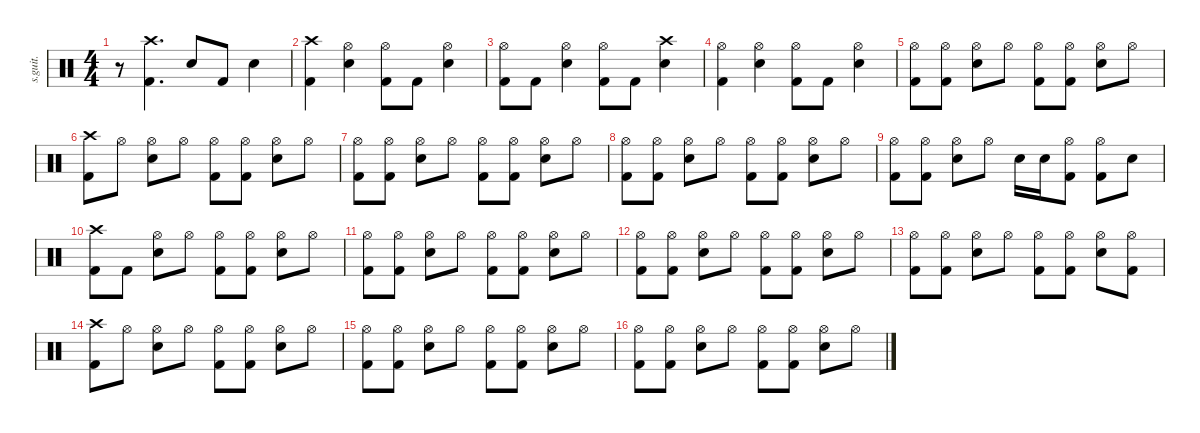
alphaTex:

\defaultSystemsLayout 4
\hideDynamics
\bracketExtendMode nobrackets
\track ("" "s.guit.") {instrument percussion}
\staff {score}
\articulation defaults
\ts (4 4)
\tempo (153 hide)
\clef neutral
\ks c
r.8{dy f} ("Crash high (hit)" "Kick (hit) 2").4{d} "Snare (hit) 2".8 "Kick (hit) 2".8 "Snare (hit) 2".4 |
("Crash high (hit)" "Kick (hit) 2").4 ("Hi-Hat (open)" "Snare (hit) 2").4 ("Hi-Hat (open)" "Kick (hit) 2").8 "Kick (hit) 2".8 ("Hi-Hat (open)" "Snare (hit) 2").4 |
("Hi-Hat (open)" "Kick (hit) 2").8 "Kick (hit) 2".8 ("Hi-Hat (open)" "Snare (hit) 2").4 ("Hi-Hat (open)" "Kick (hit) 2").8 "Kick (hit) 2".8 ("Crash high (hit)" "Snare (hit) 2").4 |
("Hi-Hat (open)" "Kick (hit) 2").4 ("Hi-Hat (open)" "Snare (hit) 2").4 ("Hi-Hat (open)" "Kick (hit) 2").8 "Kick (hit) 2".8 ("Hi-Hat (open)" "Snare (hit) 2").4 |
("Hi-Hat (open)" "Kick (hit) 2").8 ("Hi-Hat (open)" "Kick (hit) 2").8 ("Hi-Hat (open)" "Snare (hit) 2").8 "Hi-Hat (open)".8 ("Hi-Hat (open)" "Kick (hit) 2").8 ("Hi-Hat (open)" "Kick (hit) 2").8 ("Hi-Hat (open)" "Snare (hit) 2").8 "Hi-Hat (open)".8 |
("Crash high (hit)" "Kick (hit) 2").8 "Hi-Hat (open)".8 ("Hi-Hat (open)" "Snare (hit) 2").8 "Hi-Hat (open)".8 ("Hi-Hat (open)" "Kick (hit) 2").8 ("Hi-Hat (open)" "Kick (hit) 2").8 ("Hi-Hat (open)" "Snare (hit) 2").8 "Hi-Hat (open)".8 |
("Hi-Hat (open)" "Kick (hit) 2").8 ("Hi-Hat (open)" "Kick (hit) 2").8 ("Hi-Hat (open)" "Snare (hit) 2").8 "Hi-Hat (open)".8 ("Hi-Hat (open)" "Kick (hit) 2").8 ("Hi-Hat (open)" "Kick (hit) 2").8 ("Hi-Hat (open)" "Snare (hit) 2").8 "Hi-Hat (open)".8 |
("Hi-Hat (open)" "Kick (hit) 2").8 ("Hi-Hat (open)" "Kick (hit) 2").8 ("Hi-Hat (open)" "Snare (hit) 2").8 "Hi-Hat (open)".8 ("Hi-Hat (open)" "Kick (hit) 2").8 ("Hi-Hat (open)" "Kick (hit) 2").8 ("Hi-Hat (open)" "Snare (hit) 2").8 "Hi-Hat (open)".8 |
("Hi-Hat (open)" "Kick (hit) 2").8 ("Hi-Hat (open)" "Kick (hit) 2").8 ("Hi-Hat (open)" "Snare (hit) 2").8 "Hi-Hat (open)".8 "Snare (hit) 2".16 "Snare (hit) 2".16 ("Hi-Hat (open)" "Kick (hit) 2").8 ("Hi-Hat (open)" "Kick (hit) 2").8 "Snare (hit) 2".8 |
("Crash high (hit)" "Kick (hit) 2").8 "Kick (hit) 2".8 ("Hi-Hat (open)" "Snare (hit) 2").8 "Hi-Hat (open)".8 ("Hi-Hat (open)" "Kick (hit) 2").8 ("Hi-Hat (open)" "Kick (hit) 2").8 ("Hi-Hat (open)" "Snare (hit) 2").8 "Hi-Hat (open)".8 |
("Hi-Hat (open)" "Kick (hit) 2").8 ("Hi-Hat (open)" "Kick (hit) 2").8 ("Hi-Hat (open)" "Snare (hit) 2").8 "Hi-Hat (open)".8 ("Hi-Hat (open)" "Kick (hit) 2").8 ("Hi-Hat (open)" "Kick (hit) 2").8 ("Hi-Hat (open)" "Snare (hit) 2").8 "Hi-Hat (open)".8 |
("Hi-Hat (open)" "Kick (hit) 2").8 ("Hi-Hat (open)" "Kick (hit) 2").8 ("Hi-Hat (open)" "Snare (hit) 2").8 "Hi-Hat (open)".8 ("Hi-Hat (open)" "Kick (hit) 2").8 ("Hi-Hat (open)" "Kick (hit) 2").8 ("Hi-Hat (open)" "Snare (hit) 2").8 "Hi-Hat (open)".8 |
("Hi-Hat (open)" "Kick (hit) 2").8 ("Hi-Hat (open)" "Kick (hit) 2").8 ("Hi-Hat (open)" "Snare (hit) 2").8 "Hi-Hat (open)".8 ("Hi-Hat (open)" "Kick (hit) 2").8 ("Hi-Hat (open)" "Kick (hit) 2").8 ("Hi-Hat (open)" "Snare (hit) 2").8 ("Hi-Hat (open)" "Kick (hit) 2").8 |
("Crash high (hit)" "Kick (hit) 2").8 "Hi-Hat (open)".8 ("Hi-Hat (open)" "Snare (hit) 2").8 "Hi-Hat (open)".8 ("Hi-Hat (open)" "Kick (hit) 2").8 ("Hi-Hat (open)" "Kick (hit) 2").8 ("Hi-Hat (open)" "Snare (hit) 2").8 "Hi-Hat (open)".8 |
("Hi-Hat (open)" "Kick (hit) 2").8 ("Hi-Hat (open)" "Kick (hit) 2").8 ("Hi-Hat (open)" "Snare (hit) 2").8 "Hi-Hat (open)".8 ("Hi-Hat (open)" "Kick (hit) 2").8 ("Hi-Hat (open)" "Kick (hit) 2").8 ("Hi-Hat (open)" "Snare (hit) 2").8 "Hi-Hat (open)".8 |
("Hi-Hat (open)" "Kick (hit) 2").8 ("Hi-Hat (open)" "Kick (hit) 2").8 ("Hi-Hat (open)" "Snare (hit) 2").8 "Hi-Hat (open)".8 ("Hi-Hat (open)" "Kick (hit) 2").8 ("Hi-Hat (open)" "Kick (hit) 2").8 ("Hi-Hat (open)" "Snare (hit) 2").8 "Hi-Hat (open)".8
